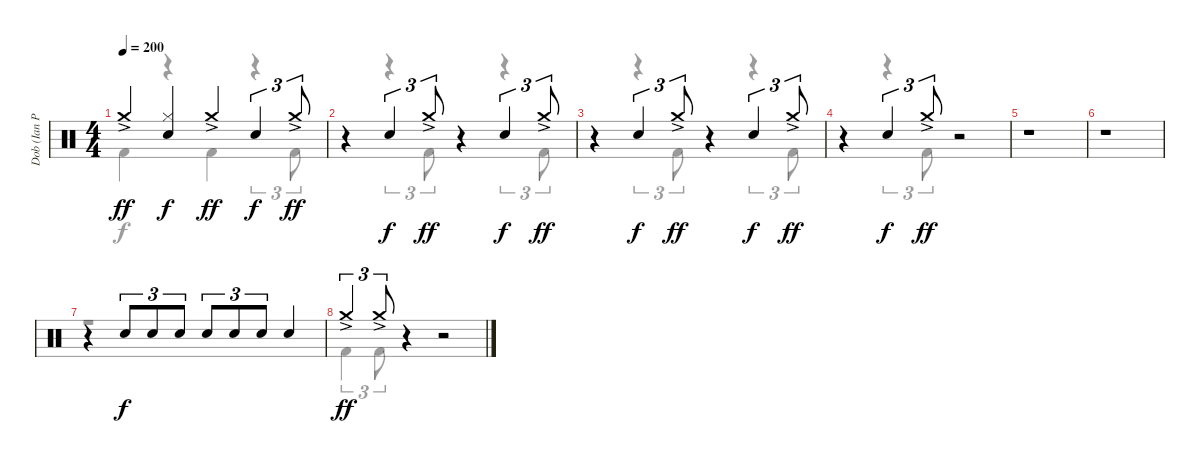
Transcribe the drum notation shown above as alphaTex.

\track ("Dob (Ian Paice)" "Dob (Ian P") {instrument percussion}
\staff {score}
\articulation defaults
\voice
\ts (4 4)
\tempo 200
\clef neutral
\ks c "Crash medium (hit)"{ac}.4{dy ff}
("Hi-Hat (closed)" "Electric Snare (hit)").4{dy f} "Crash medium (hit)"{ac}.4{dy ff} "Electric Snare (hit)".4{tu (3 2) dy f} "Crash medium (hit)"{ac}.8{tu (3 2) dy ff} |
r.4 "Electric Snare (hit)".4{tu (3 2) dy f} "Crash medium (hit)"{ac}.8{tu (3 2) dy ff} r.4 "Electric Snare (hit)".4{tu (3 2) dy f} "Crash medium (hit)"{ac}.8{tu (3 2) dy ff} |
r.4 "Electric Snare (hit)".4{tu (3 2) dy f} "Crash medium (hit)"{ac}.8{tu (3 2) dy ff} r.4 "Electric Snare (hit)".4{tu (3 2) dy f} "Crash medium (hit)"{ac}.8{tu (3 2) dy ff} |
r.4 "Electric Snare (hit)".4{tu (3 2) dy f} "Crash medium (hit)"{ac}.8{tu (3 2) dy ff} r.2 |
r.1 |
r.1 |
r.4 "Electric Snare (hit)".8{tu (3 2) dy f} "Electric Snare (hit)".8{tu (3 2)} "Electric Snare (hit)".8{tu (3 2)} "Electric Snare (hit)".8{tu (3 2)} "Electric Snare (hit)".8{tu (3 2)} "Electric Snare (hit)".8{tu (3 2)} "Electric Snare (hit)".4 |
"Crash medium (hit)"{ac}.4{tu (3 2) dy ff} "Crash medium (hit)"{ac}.8{tu (3 2)} r.4 r.2 |
|
\voice
\clef neutral
\ottava regular
\simile none
\ks c "Kick (hit) 2".4{dy f}
r.4 "Kick (hit) 2".4 r.4{tu (3 2)} "Kick (hit) 2".8{tu (3 2)} |
r.4 r.4{tu (3 2)} "Kick (hit) 2".8{tu (3 2)} r.4 r.4{tu (3 2)} "Kick (hit) 2".8{tu (3 2)} |
r.4 r.4{tu (3 2)} "Kick (hit) 2".8{tu (3 2)} r.4 r.4{tu (3 2)} "Kick (hit) 2".8{tu (3 2)} |
r.4 r.4{tu (3 2)} "Kick (hit) 2".8{tu (3 2)} r.2 |
r.1 |
r.1 |
r.1 |
"Kick (hit) 2".4{tu (3 2)} "Kick (hit) 2".8{tu (3 2)} r.4 r.2 |
|
